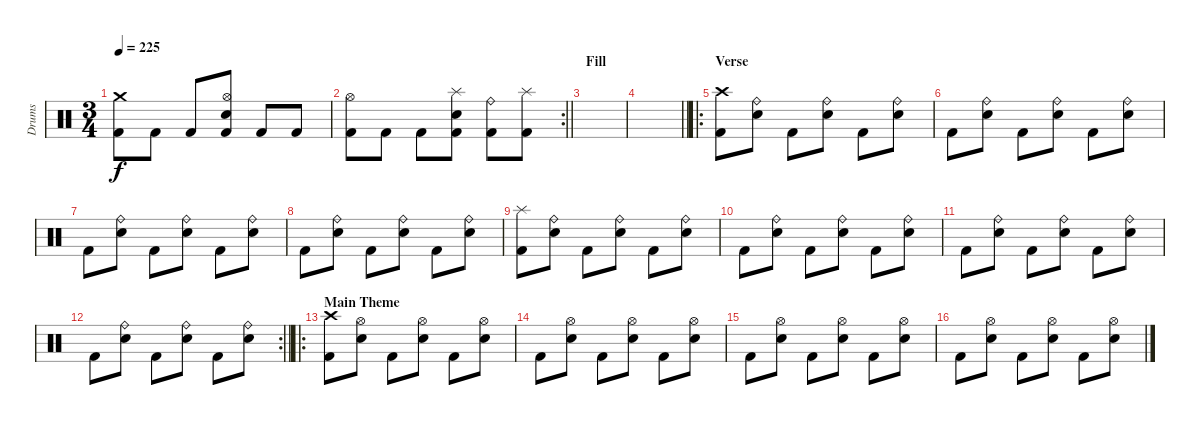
\track ("Drums" "Drums") {instrument percussion}
\staff {score}
\articulation defaults
\ts (3 4)
\tempo 225
\clef neutral
\ks c
("Crash medium (hit)" "Kick (hit) 2").8{dy f} "Kick (hit) 2".8 "Kick (hit) 2".8 ("Hi-Hat (open)" "Electric Snare (hit)" "Kick (hit) 2").8 "Kick (hit) 2".8 "Kick (hit) 2".8 |
\rc 2
\barLineRight lightlight
("Hi-Hat (open)" "Kick (hit) 2").8 "Kick (hit) 2".8 "Kick (hit) 2".8 ("Splash (hit)" "Electric Snare (hit)" "Kick (hit) 2").8 ("Ride (bell)" "Kick (hit) 2").8 ("Splash (hit)" "Kick (hit) 2").8 |
\section ("" "Fill")
|
\barLineRight lightlight
|
\ro
\section ("" "Verse")
("Crash high (hit)" "Kick (hit) 2").8 ("Ride (bell)" "Electric Snare (hit)").8 "Kick (hit) 2".8 ("Ride (bell)" "Electric Snare (hit)").8 "Kick (hit) 2".8 ("Ride (bell)" "Electric Snare (hit)").8 |
"Kick (hit) 2".8 ("Ride (bell)" "Electric Snare (hit)").8 "Kick (hit) 2".8 ("Ride (bell)" "Electric Snare (hit)").8 "Kick (hit) 2".8 ("Ride (bell)" "Electric Snare (hit)").8 |
"Kick (hit) 2".8 ("Ride (bell)" "Electric Snare (hit)").8 "Kick (hit) 2".8 ("Ride (bell)" "Electric Snare (hit)").8 "Kick (hit) 2".8 ("Ride (bell)" "Electric Snare (hit)").8 |
"Kick (hit) 2".8 ("Ride (bell)" "Electric Snare (hit)").8 "Kick (hit) 2".8 ("Ride (bell)" "Electric Snare (hit)").8 "Kick (hit) 2".8 ("Ride (bell)" "Electric Snare (hit)").8 |
("Splash (hit)" "Kick (hit) 2").8 ("Ride (bell)" "Electric Snare (hit)").8 "Kick (hit) 2".8 ("Ride (bell)" "Electric Snare (hit)").8 "Kick (hit) 2".8 ("Ride (bell)" "Electric Snare (hit)").8 |
"Kick (hit) 2".8 ("Ride (bell)" "Electric Snare (hit)").8 "Kick (hit) 2".8 ("Ride (bell)" "Electric Snare (hit)").8 "Kick (hit) 2".8 ("Ride (bell)" "Electric Snare (hit)").8 |
"Kick (hit) 2".8 ("Ride (bell)" "Electric Snare (hit)").8 "Kick (hit) 2".8 ("Ride (bell)" "Electric Snare (hit)").8 "Kick (hit) 2".8 ("Ride (bell)" "Electric Snare (hit)").8 |
\rc 2
\barLineRight lightlight "Kick (hit) 2".8
("Ride (bell)" "Electric Snare (hit)").8 "Kick (hit) 2".8 ("Ride (bell)" "Electric Snare (hit)").8 "Kick (hit) 2".8 ("Ride (bell)" "Electric Snare (hit)").8 |
\ro
\section ("" "Main Theme")
("Crash high (hit)" "Kick (hit) 2").8 ("Hi-Hat (open)" "Electric Snare (hit)").8 "Kick (hit) 2".8 ("Hi-Hat (open)" "Electric Snare (hit)").8 "Kick (hit) 2".8 ("Hi-Hat (open)" "Electric Snare (hit)").8 |
"Kick (hit) 2".8 ("Hi-Hat (open)" "Electric Snare (hit)").8 "Kick (hit) 2".8 ("Hi-Hat (open)" "Electric Snare (hit)").8 "Kick (hit) 2".8 ("Hi-Hat (open)" "Electric Snare (hit)").8 |
"Kick (hit) 2".8 ("Hi-Hat (open)" "Electric Snare (hit)").8 "Kick (hit) 2".8 ("Hi-Hat (open)" "Electric Snare (hit)").8 "Kick (hit) 2".8 ("Hi-Hat (open)" "Electric Snare (hit)").8 |
"Kick (hit) 2".8 ("Hi-Hat (open)" "Electric Snare (hit)").8 "Kick (hit) 2".8 ("Hi-Hat (open)" "Electric Snare (hit)").8 "Kick (hit) 2".8 ("Hi-Hat (open)" "Electric Snare (hit)").8
